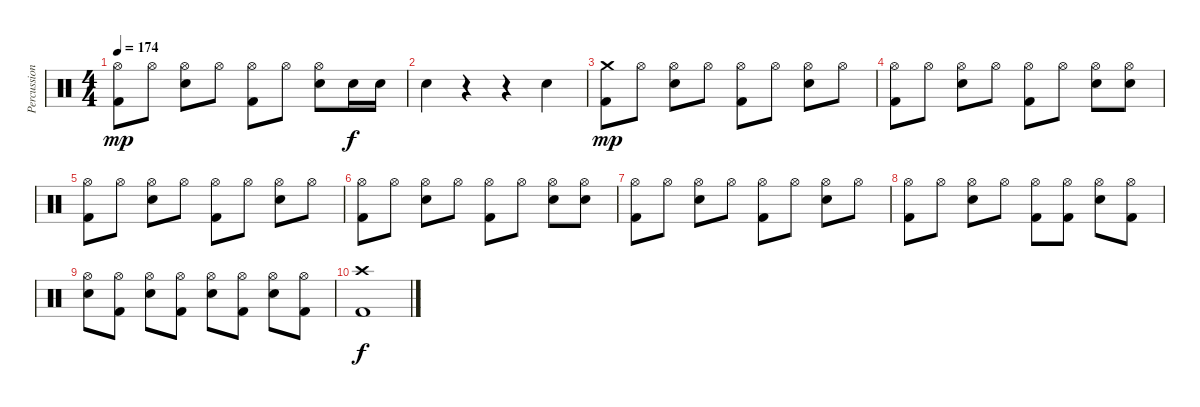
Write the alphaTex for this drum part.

\track ("Percussion" "Percussion") {instrument percussion}
\staff {score}
\articulation defaults
\ts (4 4)
\tempo 174
\clef neutral
\ks c
("Hi-Hat (open)" "Kick (hit) 2").8{dy mp} "Hi-Hat (open)".8 ("Hi-Hat (open)" "Electric Snare (hit)").8 "Hi-Hat (open)".8 ("Hi-Hat (open)" "Kick (hit) 2").8 "Hi-Hat (open)".8 ("Hi-Hat (open)" "Electric Snare (hit)").8 "Electric Snare (hit)".16{dy f} "Electric Snare (hit)".16 |
"Electric Snare (hit)".4 r.4 r.4 "Electric Snare (hit)".4 |
("Crash medium (hit)" "Kick (hit) 2").8{dy mp} "Hi-Hat (open)".8 ("Hi-Hat (open)" "Electric Snare (hit)").8 "Hi-Hat (open)".8 ("Hi-Hat (open)" "Kick (hit) 2").8 "Hi-Hat (open)".8 ("Hi-Hat (open)" "Electric Snare (hit)").8 "Hi-Hat (open)".8 |
("Hi-Hat (open)" "Kick (hit) 2").8 "Hi-Hat (open)".8 ("Hi-Hat (open)" "Electric Snare (hit)").8 "Hi-Hat (open)".8 ("Hi-Hat (open)" "Kick (hit) 2").8 "Hi-Hat (open)".8 ("Hi-Hat (open)" "Electric Snare (hit)").8 ("Hi-Hat (open)" "Electric Snare (hit)").8 |
("Hi-Hat (open)" "Kick (hit) 2").8 "Hi-Hat (open)".8 ("Hi-Hat (open)" "Electric Snare (hit)").8 "Hi-Hat (open)".8 ("Hi-Hat (open)" "Kick (hit) 2").8 "Hi-Hat (open)".8 ("Hi-Hat (open)" "Electric Snare (hit)").8 "Hi-Hat (open)".8 |
("Hi-Hat (open)" "Kick (hit) 2").8 "Hi-Hat (open)".8 ("Hi-Hat (open)" "Electric Snare (hit)").8 "Hi-Hat (open)".8 ("Hi-Hat (open)" "Kick (hit) 2").8 "Hi-Hat (open)".8 ("Hi-Hat (open)" "Electric Snare (hit)").8 ("Hi-Hat (open)" "Electric Snare (hit)").8 |
("Hi-Hat (open)" "Kick (hit) 2").8 "Hi-Hat (open)".8 ("Hi-Hat (open)" "Electric Snare (hit)").8 "Hi-Hat (open)".8 ("Hi-Hat (open)" "Kick (hit) 2").8 "Hi-Hat (open)".8 ("Hi-Hat (open)" "Electric Snare (hit)").8 "Hi-Hat (open)".8 |
("Hi-Hat (open)" "Kick (hit) 2").8 "Hi-Hat (open)".8 ("Hi-Hat (open)" "Electric Snare (hit)").8 "Hi-Hat (open)".8 ("Hi-Hat (open)" "Kick (hit) 2").8 ("Hi-Hat (open)" "Kick (hit) 2").8 ("Hi-Hat (open)" "Electric Snare (hit)").8 ("Hi-Hat (open)" "Kick (hit) 2").8 |
("Hi-Hat (open)" "Electric Snare (hit)").8 ("Hi-Hat (open)" "Kick (hit) 2").8 ("Hi-Hat (open)" "Electric Snare (hit)").8 ("Hi-Hat (open)" "Kick (hit) 2").8 ("Hi-Hat (open)" "Electric Snare (hit)").8 ("Hi-Hat (open)" "Kick (hit) 2").8 ("Hi-Hat (open)" "Electric Snare (hit)").8 ("Hi-Hat (open)" "Kick (hit) 2").8 |
("Crash high (hit)" "Kick (hit) 2").1{dy f}
